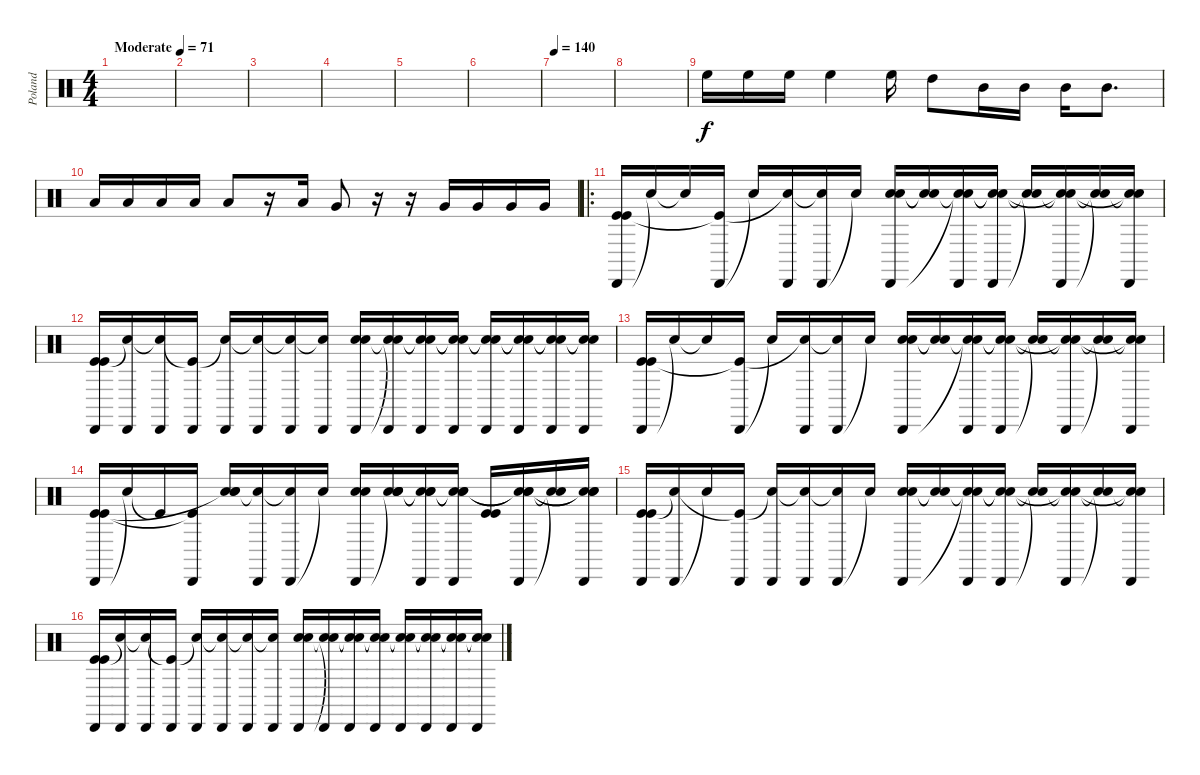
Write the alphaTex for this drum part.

\track ("Poland" "Poland") {instrument percussion}
\staff {score}
\articulation defaults
\ts (4 4)
\tempo (71 "Moderate")
\clef neutral
\ks c
|
|
|
|
|
|
\tempo 140
|
|
"High Floor Tom (hit)".16 "High Floor Tom (hit)".16 "High Floor Tom (hit)".16 "High Floor Tom (hit)".4 "High Floor Tom (hit)".16 "High Tom (hit)".8 "Mid Tom (hit)".16 "Mid Tom (hit)".16 "Mid Tom (hit)".16 "Mid Tom (hit)".8{d} |
"Low Tom (hit)".16 "Low Tom (hit)".16 "Low Tom (hit)".16 "Low Tom (hit)".16 "Low Tom (hit)".8 r.16 "Low Tom (hit)".16 "Very Low Tom (hit)".8 r.16 r.16 "Very Low Tom (hit)".16 "Very Low Tom (hit)".16 "Very Low Tom (hit)".16 "Very Low Tom (hit)".16 |
\ro
("Cabasa (hit)" "Kick (hit)" "Kick (hit)").16 "Snare (hit)"{t}.16 "Snare (hit)"{t}.16 ("Cabasa (hit)" "Kick (hit)"{t}).16 "Snare (hit)"{t}.16 ("Cabasa (hit)" "Snare (hit)"{t}).16 ("Cabasa (hit)" "Snare (hit)"{t}).16 "Snare (hit)"{t}.16 ("Hand Clap (hit)" "Hand Clap (hit)" "Cabasa (hit)").16 ("Snare (hit)"{t} "Snare (hit)"{t}).16 ("Cabasa (hit)" "Snare (hit)"{t} "Snare (hit)"{t}).16 ("Cabasa (hit)" "Snare (hit)"{t} "Snare (hit)"{t}).16 ("Snare (hit)"{t} "Snare (hit)"{t}).16 ("Cabasa (hit)" "Snare (hit)"{t} "Snare (hit)"{t}).16 ("Snare (hit)"{t} "Snare (hit)"{t}).16 ("Cabasa (hit)" "Snare (hit)"{t} "Snare (hit)"{t}).16 |
("Cabasa (hit)" "Kick (hit)" "Kick (hit)").16 ("Cabasa (hit)" "Snare (hit)"{t}).16 ("Cabasa (hit)" "Snare (hit)"{t}).16 ("Cabasa (hit)" "Kick (hit)"{t}).16 ("Cabasa (hit)" "Snare (hit)"{t}).16 ("Cabasa (hit)" "Snare (hit)"{t}).16 ("Cabasa (hit)" "Snare (hit)"{t}).16 ("Cabasa (hit)" "Snare (hit)"{t}).16 ("Hand Clap (hit)" "Hand Clap (hit)" "Cabasa (hit)").16 ("Cabasa (hit)" "Snare (hit)"{t} "Snare (hit)"{t}).16 ("Cabasa (hit)" "Snare (hit)"{t} "Snare (hit)"{t}).16 ("Cabasa (hit)" "Snare (hit)"{t} "Snare (hit)"{t}).16 ("Cabasa (hit)" "Snare (hit)"{t} "Snare (hit)"{t}).16 ("Cabasa (hit)" "Snare (hit)"{t} "Snare (hit)"{t}).16 ("Cabasa (hit)" "Snare (hit)"{t} "Snare (hit)"{t}).16 ("Cabasa (hit)" "Snare (hit)"{t} "Snare (hit)"{t}).16 |
("Cabasa (hit)" "Kick (hit)" "Kick (hit)").16 "Snare (hit)"{t}.16 "Snare (hit)"{t}.16 ("Cabasa (hit)" "Kick (hit)"{t}).16 "Snare (hit)"{t}.16 ("Cabasa (hit)" "Snare (hit)"{t}).16 ("Cabasa (hit)" "Snare (hit)"{t}).16 "Snare (hit)"{t}.16 ("Hand Clap (hit)" "Hand Clap (hit)" "Cabasa (hit)").16 ("Snare (hit)"{t} "Snare (hit)"{t}).16 ("Cabasa (hit)" "Snare (hit)"{t} "Snare (hit)"{t}).16 ("Cabasa (hit)" "Snare (hit)"{t} "Snare (hit)"{t}).16 ("Snare (hit)"{t} "Snare (hit)"{t}).16 ("Cabasa (hit)" "Snare (hit)"{t} "Snare (hit)"{t}).16 ("Snare (hit)"{t} "Snare (hit)"{t}).16 ("Cabasa (hit)" "Snare (hit)"{t} "Snare (hit)"{t}).16 |
("Cabasa (hit)" "Kick (hit)" "Kick (hit)").16 "Snare (hit)"{t}.16 "Kick (hit)"{t}.16 ("Cabasa (hit)" "Kick (hit)"{t}).16 ("Hand Clap (hit)" "Hand Clap (hit)" "Snare (hit)"{t}).16 ("Cabasa (hit)" "Snare (hit)"{t}).16 ("Cabasa (hit)" "Snare (hit)"{t}).16 "Snare (hit)"{t}.16 ("Hand Clap (hit)" "Hand Clap (hit)" "Cabasa (hit)").16 ("Hand Clap (hit)" "Hand Clap (hit)" "Snare (hit)"{t} "Snare (hit)").16 ("Hand Clap (hit)" "Cabasa (hit)" "Snare (hit)"{t} "Snare (hit)"{t}).16 ("Hand Clap (hit)" "Cabasa (hit)" "Snare (hit)"{t} "Snare (hit)"{t}).16 ("Kick (hit)" "Kick (hit)").16 ("Hand Clap (hit)" "Cabasa (hit)" "Snare (hit)"{t} "Snare (hit)"{t}).16 ("Snare (hit)"{t} "Snare (hit)"{t}).16 ("Hand Clap (hit)" "Cabasa (hit)" "Snare (hit)"{t} "Snare (hit)"{t}).16 |
("Cabasa (hit)" "Kick (hit)" "Kick (hit)").16 ("Cabasa (hit)" "Snare (hit)"{t}).16 "Snare (hit)"{t}.16 ("Cabasa (hit)" "Kick (hit)"{t}).16 ("Cabasa (hit)" "Snare (hit)"{t}).16 ("Cabasa (hit)" "Snare (hit)"{t}).16 ("Cabasa (hit)" "Snare (hit)"{t}).16 "Snare (hit)"{t}.16 ("Hand Clap (hit)" "Hand Clap (hit)" "Cabasa (hit)").16 ("Snare (hit)"{t} "Snare (hit)"{t}).16 ("Cabasa (hit)" "Snare (hit)"{t} "Snare (hit)"{t}).16 ("Cabasa (hit)" "Snare (hit)"{t} "Snare (hit)"{t}).16 ("Snare (hit)"{t} "Snare (hit)"{t}).16 ("Cabasa (hit)" "Snare (hit)"{t} "Snare (hit)"{t}).16 ("Snare (hit)"{t} "Snare (hit)"{t}).16 ("Cabasa (hit)" "Snare (hit)"{t} "Snare (hit)"{t}).16 |
("Cabasa (hit)" "Kick (hit)" "Kick (hit)").16 ("Cabasa (hit)" "Snare (hit)"{t}).16 ("Cabasa (hit)" "Snare (hit)"{t}).16 ("Cabasa (hit)" "Kick (hit)"{t}).16 ("Cabasa (hit)" "Snare (hit)"{t}).16 ("Cabasa (hit)" "Snare (hit)"{t}).16 ("Cabasa (hit)" "Snare (hit)"{t}).16 ("Cabasa (hit)" "Snare (hit)"{t}).16 ("Hand Clap (hit)" "Hand Clap (hit)" "Cabasa (hit)").16 ("Cabasa (hit)" "Snare (hit)"{t} "Snare (hit)"{t}).16 ("Cabasa (hit)" "Snare (hit)"{t} "Snare (hit)"{t}).16 ("Cabasa (hit)" "Snare (hit)"{t} "Snare (hit)"{t}).16 ("Cabasa (hit)" "Snare (hit)"{t} "Snare (hit)"{t}).16 ("Cabasa (hit)" "Snare (hit)"{t} "Snare (hit)"{t}).16 ("Cabasa (hit)" "Snare (hit)"{t} "Snare (hit)"{t}).16 ("Cabasa (hit)" "Snare (hit)"{t} "Snare (hit)"{t}).16
